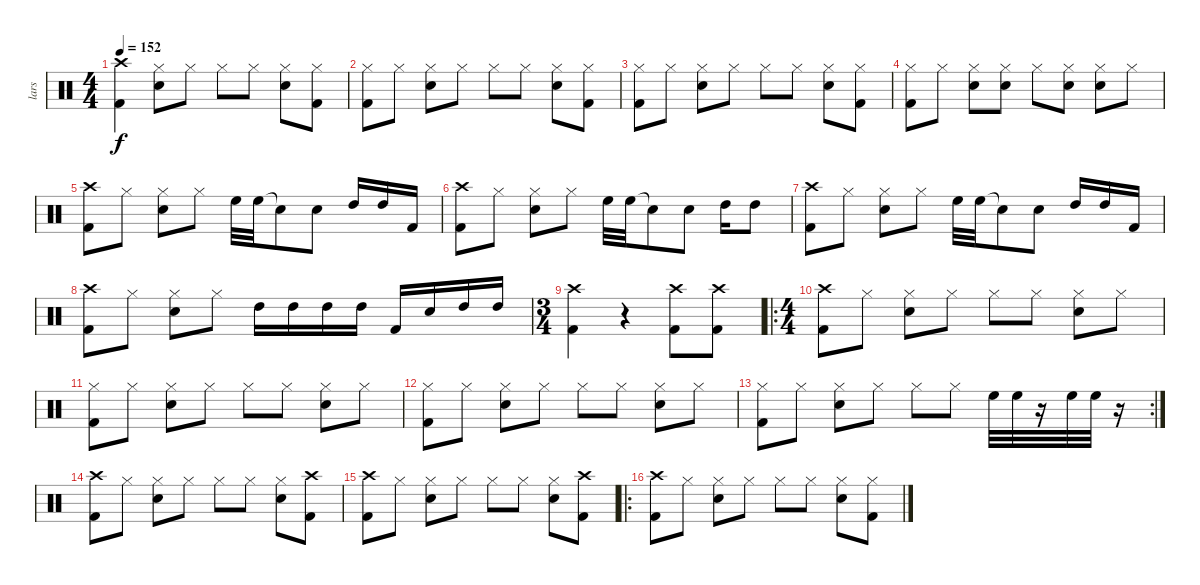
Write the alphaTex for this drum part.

\track ("lars" "lars") {instrument percussion}
\staff {score}
\articulation defaults
\ts (4 4)
\tempo 152
\clef neutral
\ks c
("Crash high (hit)" "Kick (hit) 2").4{dy f} ("Hi-Hat (closed)" "Snare (hit) 2").8 "Hi-Hat (closed)".8 "Hi-Hat (closed)".8 "Hi-Hat (closed)".8 ("Hi-Hat (closed)" "Snare (hit) 2").8 ("Hi-Hat (closed)" "Kick (hit) 2").8 |
("Hi-Hat (closed)" "Kick (hit) 2").8 "Hi-Hat (closed)".8 ("Hi-Hat (closed)" "Snare (hit) 2").8 "Hi-Hat (closed)".8 "Hi-Hat (closed)".8 "Hi-Hat (closed)".8 ("Hi-Hat (closed)" "Snare (hit) 2").8 ("Hi-Hat (closed)" "Kick (hit) 2").8 |
("Hi-Hat (closed)" "Kick (hit) 2").8 "Hi-Hat (closed)".8 ("Hi-Hat (closed)" "Snare (hit) 2").8 "Hi-Hat (closed)".8 "Hi-Hat (closed)".8 "Hi-Hat (closed)".8 ("Hi-Hat (closed)" "Snare (hit) 2").8 ("Hi-Hat (closed)" "Kick (hit) 2").8 |
("Hi-Hat (closed)" "Kick (hit) 2").8 "Hi-Hat (closed)".8 ("Hi-Hat (closed)" "Snare (hit) 2").8 ("Hi-Hat (closed)" "Snare (hit) 2").8 "Hi-Hat (closed)".8 ("Hi-Hat (closed)" "Snare (hit) 2").8 ("Hi-Hat (closed)" "Snare (hit) 2").8 "Hi-Hat (closed)".8 |
("Crash high (hit)" "Kick (hit) 2").8 "Hi-Hat (closed)".8 ("Hi-Hat (closed)" "Snare (hit) 2").8 "Hi-Hat (closed)".8 "High Floor Tom (hit)".32 "High Floor Tom (hit)".32 "Snare (hit)"{t}.8 "Snare (hit) 2".8 "High Tom (hit)".16 "High Tom (hit)".16 "Kick (hit) 2".16 |
("Crash high (hit)" "Kick (hit) 2").8 "Hi-Hat (closed)".8 ("Hi-Hat (closed)" "Snare (hit) 2").8 "Hi-Hat (closed)".8 "High Floor Tom (hit)".32 "High Floor Tom (hit)".32 "Snare (hit)"{t}.8 "Snare (hit) 2".8 "High Tom (hit)".16 "High Tom (hit)".8 |
("Crash high (hit)" "Kick (hit) 2").8 "Hi-Hat (closed)".8 ("Hi-Hat (closed)" "Snare (hit) 2").8 "Hi-Hat (closed)".8 "High Floor Tom (hit)".32 "High Floor Tom (hit)".32 "Snare (hit)"{t}.8 "Snare (hit) 2".8 "High Tom (hit)".16 "High Tom (hit)".16 "Kick (hit) 2".16 |
("Crash high (hit)" "Kick (hit) 2").8 "Hi-Hat (closed)".8 ("Hi-Hat (closed)" "Snare (hit) 2").8 "Hi-Hat (closed)".8 "High Tom (hit)".16 "High Tom (hit)".16 "High Tom (hit)".16 "High Tom (hit)".16 "Kick (hit) 2".16 "Snare (hit) 2".16 "High Tom (hit)".16 "High Tom (hit)".16 |
\ts (3 4)
("Crash high (hit)" "Kick (hit) 2").4 r.4 ("Crash high (hit)" "Kick (hit) 2").8 ("Crash high (hit)" "Kick (hit) 2").8 |
\ro
\ts (4 4)
("Crash high (hit)" "Kick (hit) 2").8 "Hi-Hat (closed)".8 ("Hi-Hat (closed)" "Snare (hit) 2").8 "Hi-Hat (closed)".8 "Hi-Hat (closed)".8 "Hi-Hat (closed)".8 ("Hi-Hat (closed)" "Snare (hit) 2").8 "Hi-Hat (closed)".8 |
("Hi-Hat (closed)" "Kick (hit) 2").8 "Hi-Hat (closed)".8 ("Hi-Hat (closed)" "Snare (hit) 2").8 "Hi-Hat (closed)".8 "Hi-Hat (closed)".8 "Hi-Hat (closed)".8 ("Hi-Hat (closed)" "Snare (hit) 2").8 "Hi-Hat (closed)".8 |
("Hi-Hat (closed)" "Kick (hit) 2").8 "Hi-Hat (closed)".8 ("Hi-Hat (closed)" "Snare (hit) 2").8 "Hi-Hat (closed)".8 "Hi-Hat (closed)".8 "Hi-Hat (closed)".8 ("Hi-Hat (closed)" "Snare (hit) 2").8 "Hi-Hat (closed)".8 |
\rc 2
("Hi-Hat (closed)" "Kick (hit) 2").8 "Hi-Hat (closed)".8 ("Hi-Hat (closed)" "Snare (hit) 2").8 "Hi-Hat (closed)".8 "Hi-Hat (closed)".8 "Hi-Hat (closed)".8 "High Floor Tom (hit)".32 "High Floor Tom (hit)".32 r.16 "High Floor Tom (hit)".32 "High Floor Tom (hit)".32 r.16 |
("Crash high (hit)" "Kick (hit) 2").8 "Hi-Hat (closed)".8 ("Hi-Hat (closed)" "Snare (hit) 2").8 "Hi-Hat (closed)".8 "Hi-Hat (closed)".8 "Hi-Hat (closed)".8 ("Hi-Hat (closed)" "Snare (hit) 2").8 ("Crash high (hit)" "Kick (hit) 2").8 |
("Crash high (hit)" "Kick (hit) 2").8 "Hi-Hat (closed)".8 ("Hi-Hat (closed)" "Snare (hit) 2").8 "Hi-Hat (closed)".8 "Hi-Hat (closed)".8 "Hi-Hat (closed)".8 ("Hi-Hat (closed)" "Snare (hit) 2").8 ("Crash high (hit)" "Kick (hit) 2").8 |
\ro
("Crash high (hit)" "Kick (hit) 2").8 "Hi-Hat (closed)".8 ("Hi-Hat (closed)" "Snare (hit) 2").8 "Hi-Hat (closed)".8 "Hi-Hat (closed)".8 "Hi-Hat (closed)".8 ("Hi-Hat (closed)" "Snare (hit) 2").8 ("Hi-Hat (closed)" "Kick (hit) 2").8
